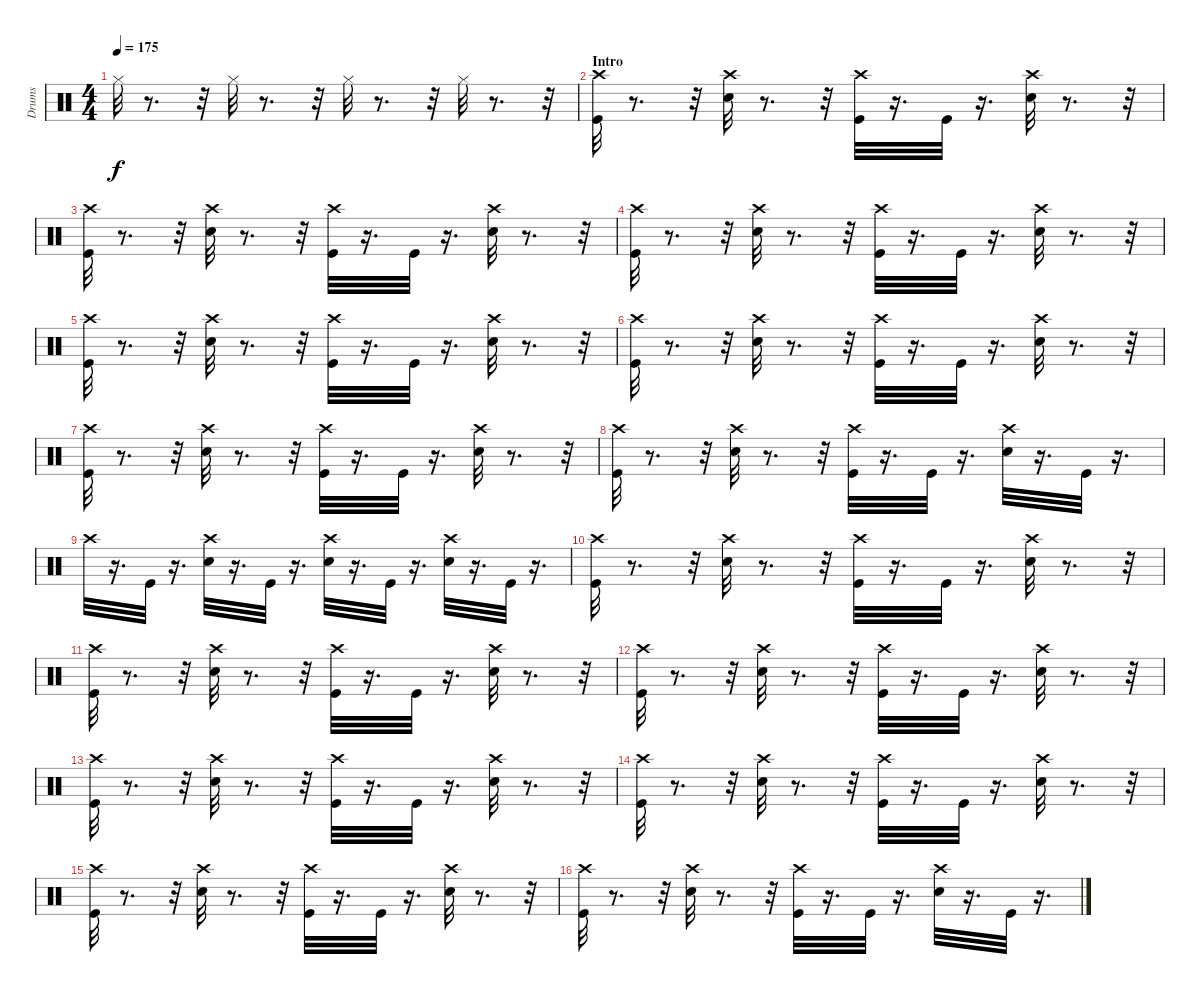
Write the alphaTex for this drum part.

\track ("Drums" "Drums") {instrument percussion}
\staff {score}
\articulation defaults
\ts (4 4)
\tempo 175
\clef neutral
\ks c "Hi-Hat (closed)".32{dy f}
r.8{d} r.32 "Hi-Hat (closed)".32 r.8{d} r.32 "Hi-Hat (closed)".32 r.8{d} r.32 "Hi-Hat (closed)".32 r.8{d} r.32 |
\section ("" "Intro")
("Crash high (hit)" "Kick (hit)").32 r.8{d} r.32 ("Crash high (hit)" "Electric Snare (hit)").32 r.8{d} r.32 ("Kick (hit)" "Crash high (hit)").32 r.16{d} "Kick (hit)".32 r.16{d} ("Crash high (hit)" "Electric Snare (hit)").32 r.8{d} r.32 |
("Crash high (hit)" "Kick (hit)").32 r.8{d} r.32 ("Crash high (hit)" "Electric Snare (hit)").32 r.8{d} r.32 ("Crash high (hit)" "Kick (hit)").32 r.16{d} "Kick (hit)".32 r.16{d} ("Crash high (hit)" "Electric Snare (hit)").32 r.8{d} r.32 |
("Crash high (hit)" "Kick (hit)").32 r.8{d} r.32 ("Crash high (hit)" "Electric Snare (hit)").32 r.8{d} r.32 ("Crash high (hit)" "Kick (hit)").32 r.16{d} "Kick (hit)".32 r.16{d} ("Crash high (hit)" "Electric Snare (hit)").32 r.8{d} r.32 |
("Crash high (hit)" "Kick (hit)").32 r.8{d} r.32 ("Crash high (hit)" "Electric Snare (hit)").32 r.8{d} r.32 ("Crash high (hit)" "Kick (hit)").32 r.16{d} "Kick (hit)".32 r.16{d} ("Crash high (hit)" "Electric Snare (hit)").32 r.8{d} r.32 |
("Crash high (hit)" "Kick (hit)").32 r.8{d} r.32 ("Crash high (hit)" "Electric Snare (hit)").32 r.8{d} r.32 ("Crash high (hit)" "Kick (hit)").32 r.16{d} "Kick (hit)".32 r.16{d} ("Crash high (hit)" "Electric Snare (hit)").32 r.8{d} r.32 |
("Crash high (hit)" "Kick (hit)").32 r.8{d} r.32 ("Crash high (hit)" "Electric Snare (hit)").32 r.8{d} r.32 ("Crash high (hit)" "Kick (hit)").32 r.16{d} "Kick (hit)".32 r.16{d} ("Crash high (hit)" "Electric Snare (hit)").32 r.8{d} r.32 |
("Crash high (hit)" "Kick (hit)").32 r.8{d} r.32 ("Crash high (hit)" "Electric Snare (hit)").32 r.8{d} r.32 ("Crash high (hit)" "Kick (hit)").32 r.16{d} "Kick (hit)".32 r.16{d} ("Crash high (hit)" "Electric Snare (hit)").32 r.16{d} "Kick (hit)".32 r.16{d} |
"Crash high (hit)".32 r.16{d} "Kick (hit)".32 r.16{d} ("Crash high (hit)" "Electric Snare (hit)").32 r.16{d} "Kick (hit)".32 r.16{d} ("Crash high (hit)" "Electric Snare (hit)").32 r.16{d} "Kick (hit)".32 r.16{d} ("Crash high (hit)" "Electric Snare (hit)").32 r.16{d} "Kick (hit)".32 r.16{d} |
("Crash high (hit)" "Kick (hit)").32 r.8{d} r.32 ("Crash high (hit)" "Electric Snare (hit)").32 r.8{d} r.32 ("Crash high (hit)" "Kick (hit)").32 r.16{d} "Kick (hit)".32 r.16{d} ("Crash high (hit)" "Electric Snare (hit)").32 r.8{d} r.32 |
("Crash high (hit)" "Kick (hit)").32 r.8{d} r.32 ("Crash high (hit)" "Electric Snare (hit)").32 r.8{d} r.32 ("Crash high (hit)" "Kick (hit)").32 r.16{d} "Kick (hit)".32 r.16{d} ("Crash high (hit)" "Electric Snare (hit)").32 r.8{d} r.32 |
("Crash high (hit)" "Kick (hit)").32 r.8{d} r.32 ("Crash high (hit)" "Electric Snare (hit)").32 r.8{d} r.32 ("Crash high (hit)" "Kick (hit)").32 r.16{d} "Kick (hit)".32 r.16{d} ("Crash high (hit)" "Electric Snare (hit)").32 r.8{d} r.32 |
("Crash high (hit)" "Kick (hit)").32 r.8{d} r.32 ("Crash high (hit)" "Electric Snare (hit)").32 r.8{d} r.32 ("Crash high (hit)" "Kick (hit)").32 r.16{d} "Kick (hit)".32 r.16{d} ("Crash high (hit)" "Electric Snare (hit)").32 r.8{d} r.32 |
("Crash high (hit)" "Kick (hit)").32 r.8{d} r.32 ("Crash high (hit)" "Electric Snare (hit)").32 r.8{d} r.32 ("Crash high (hit)" "Kick (hit)").32 r.16{d} "Kick (hit)".32 r.16{d} ("Crash high (hit)" "Electric Snare (hit)").32 r.8{d} r.32 |
("Crash high (hit)" "Kick (hit)").32 r.8{d} r.32 ("Crash high (hit)" "Electric Snare (hit)").32 r.8{d} r.32 ("Crash high (hit)" "Kick (hit)").32 r.16{d} "Kick (hit)".32 r.16{d} ("Crash high (hit)" "Electric Snare (hit)").32 r.8{d} r.32 |
("Crash high (hit)" "Kick (hit)").32 r.8{d} r.32 ("Electric Snare (hit)" "Crash high (hit)").32 r.8{d} r.32 ("Kick (hit)" "Crash high (hit)").32 r.16{d} "Kick (hit)".32 r.16{d} ("Electric Snare (hit)" "Crash high (hit)").32 r.16{d} "Kick (hit)".32 r.16{d}
